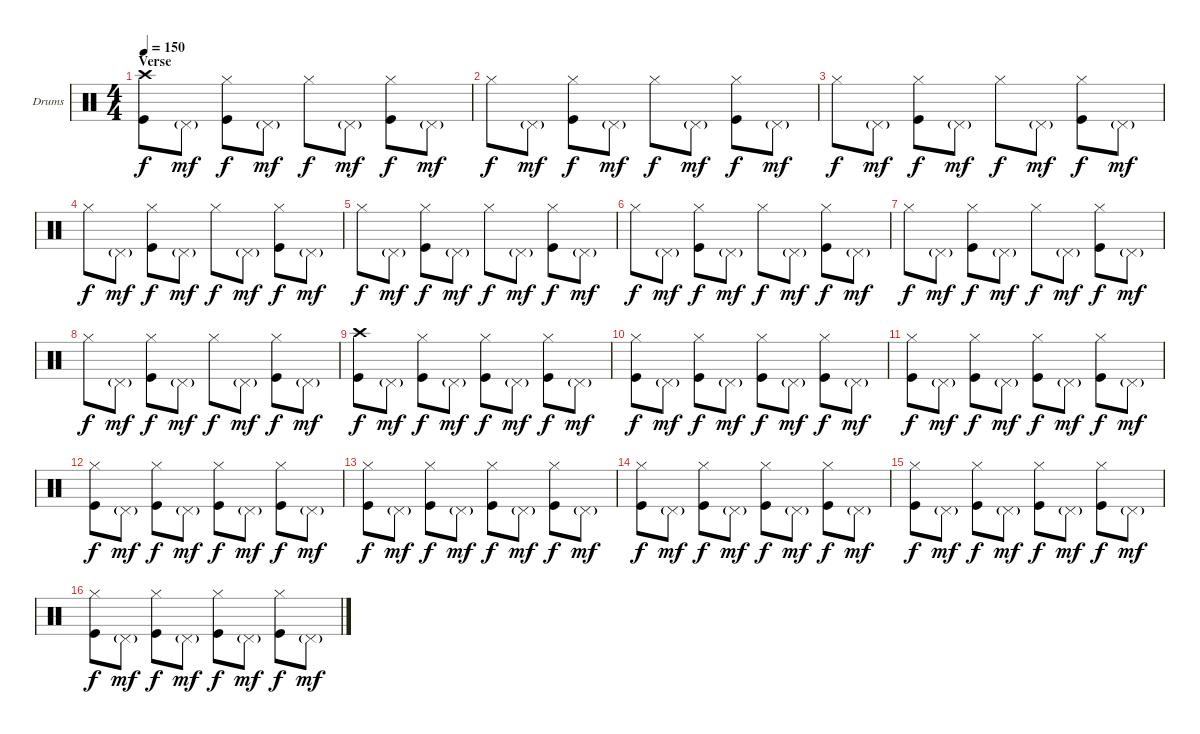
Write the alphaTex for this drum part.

\bracketExtendMode nobrackets
\firstSystemTrackNameOrientation horizontal
\otherSystemsTrackNameOrientation horizontal
\track ("Drumkit" "Drums") {instrument percussion}
\staff {score}
\articulation defaults
\ts (4 4)
\section ("" "Verse ")
\tempo 150
\clef neutral
\ks c
("Crash high (hit)" "Kick (hit)").8{dy f} "Pedal Hi-Hat (hit)"{g}.8{dy mf} ("Hi-Hat (closed)" "Kick (hit)").8{dy f} "Pedal Hi-Hat (hit)"{g}.8{dy mf} "Hi-Hat (closed)".8{dy f} "Pedal Hi-Hat (hit)"{g}.8{dy mf} ("Hi-Hat (closed)" "Kick (hit)").8{dy f} "Pedal Hi-Hat (hit)"{g}.8{dy mf} |
"Hi-Hat (closed)".8{dy f} "Pedal Hi-Hat (hit)"{g}.8{dy mf} ("Hi-Hat (closed)" "Kick (hit)").8{dy f} "Pedal Hi-Hat (hit)"{g}.8{dy mf} "Hi-Hat (closed)".8{dy f} "Pedal Hi-Hat (hit)"{g}.8{dy mf} ("Hi-Hat (closed)" "Kick (hit)").8{dy f} "Pedal Hi-Hat (hit)"{g}.8{dy mf} |
"Hi-Hat (closed)".8{dy f} "Pedal Hi-Hat (hit)"{g}.8{dy mf} ("Hi-Hat (closed)" "Kick (hit)").8{dy f} "Pedal Hi-Hat (hit)"{g}.8{dy mf} "Hi-Hat (closed)".8{dy f} "Pedal Hi-Hat (hit)"{g}.8{dy mf} ("Hi-Hat (closed)" "Kick (hit)").8{dy f} "Pedal Hi-Hat (hit)"{g}.8{dy mf} |
"Hi-Hat (closed)".8{dy f} "Pedal Hi-Hat (hit)"{g}.8{dy mf} ("Hi-Hat (closed)" "Kick (hit)").8{dy f} "Pedal Hi-Hat (hit)"{g}.8{dy mf} "Hi-Hat (closed)".8{dy f} "Pedal Hi-Hat (hit)"{g}.8{dy mf} ("Hi-Hat (closed)" "Kick (hit)").8{dy f} "Pedal Hi-Hat (hit)"{g}.8{dy mf} |
"Hi-Hat (closed)".8{dy f} "Pedal Hi-Hat (hit)"{g}.8{dy mf} ("Hi-Hat (closed)" "Kick (hit)").8{dy f} "Pedal Hi-Hat (hit)"{g}.8{dy mf} "Hi-Hat (closed)".8{dy f} "Pedal Hi-Hat (hit)"{g}.8{dy mf} ("Hi-Hat (closed)" "Kick (hit)").8{dy f} "Pedal Hi-Hat (hit)"{g}.8{dy mf} |
"Hi-Hat (closed)".8{dy f} "Pedal Hi-Hat (hit)"{g}.8{dy mf} ("Hi-Hat (closed)" "Kick (hit)").8{dy f} "Pedal Hi-Hat (hit)"{g}.8{dy mf} "Hi-Hat (closed)".8{dy f} "Pedal Hi-Hat (hit)"{g}.8{dy mf} ("Hi-Hat (closed)" "Kick (hit)").8{dy f} "Pedal Hi-Hat (hit)"{g}.8{dy mf} |
"Hi-Hat (closed)".8{dy f} "Pedal Hi-Hat (hit)"{g}.8{dy mf} ("Hi-Hat (closed)" "Kick (hit)").8{dy f} "Pedal Hi-Hat (hit)"{g}.8{dy mf} "Hi-Hat (closed)".8{dy f} "Pedal Hi-Hat (hit)"{g}.8{dy mf} ("Hi-Hat (closed)" "Kick (hit)").8{dy f} "Pedal Hi-Hat (hit)"{g}.8{dy mf} |
"Hi-Hat (closed)".8{dy f} "Pedal Hi-Hat (hit)"{g}.8{dy mf} ("Hi-Hat (closed)" "Kick (hit)").8{dy f} "Pedal Hi-Hat (hit)"{g}.8{dy mf} "Hi-Hat (closed)".8{dy f} "Pedal Hi-Hat (hit)"{g}.8{dy mf} ("Hi-Hat (closed)" "Kick (hit)").8{dy f} "Pedal Hi-Hat (hit)"{g}.8{dy mf} |
("Crash high (hit)" "Kick (hit)").8{dy f} "Pedal Hi-Hat (hit)"{g}.8{dy mf} ("Hi-Hat (closed)" "Kick (hit)").8{dy f} "Pedal Hi-Hat (hit)"{g}.8{dy mf} ("Hi-Hat (closed)" "Kick (hit)").8{dy f} "Pedal Hi-Hat (hit)"{g}.8{dy mf} ("Hi-Hat (closed)" "Kick (hit)").8{dy f} "Pedal Hi-Hat (hit)"{g}.8{dy mf} |
("Hi-Hat (closed)" "Kick (hit)").8{dy f} "Pedal Hi-Hat (hit)"{g}.8{dy mf} ("Hi-Hat (closed)" "Kick (hit)").8{dy f} "Pedal Hi-Hat (hit)"{g}.8{dy mf} ("Hi-Hat (closed)" "Kick (hit)").8{dy f} "Pedal Hi-Hat (hit)"{g}.8{dy mf} ("Hi-Hat (closed)" "Kick (hit)").8{dy f} "Pedal Hi-Hat (hit)"{g}.8{dy mf} |
("Hi-Hat (closed)" "Kick (hit)").8{dy f} "Pedal Hi-Hat (hit)"{g}.8{dy mf} ("Hi-Hat (closed)" "Kick (hit)").8{dy f} "Pedal Hi-Hat (hit)"{g}.8{dy mf} ("Hi-Hat (closed)" "Kick (hit)").8{dy f} "Pedal Hi-Hat (hit)"{g}.8{dy mf} ("Hi-Hat (closed)" "Kick (hit)").8{dy f} "Pedal Hi-Hat (hit)"{g}.8{dy mf} |
("Hi-Hat (closed)" "Kick (hit)").8{dy f} "Pedal Hi-Hat (hit)"{g}.8{dy mf} ("Hi-Hat (closed)" "Kick (hit)").8{dy f} "Pedal Hi-Hat (hit)"{g}.8{dy mf} ("Hi-Hat (closed)" "Kick (hit)").8{dy f} "Pedal Hi-Hat (hit)"{g}.8{dy mf} ("Hi-Hat (closed)" "Kick (hit)").8{dy f} "Pedal Hi-Hat (hit)"{g}.8{dy mf} |
("Hi-Hat (closed)" "Kick (hit)").8{dy f} "Pedal Hi-Hat (hit)"{g}.8{dy mf} ("Hi-Hat (closed)" "Kick (hit)").8{dy f} "Pedal Hi-Hat (hit)"{g}.8{dy mf} ("Hi-Hat (closed)" "Kick (hit)").8{dy f} "Pedal Hi-Hat (hit)"{g}.8{dy mf} ("Hi-Hat (closed)" "Kick (hit)").8{dy f} "Pedal Hi-Hat (hit)"{g}.8{dy mf} |
("Hi-Hat (closed)" "Kick (hit)").8{dy f} "Pedal Hi-Hat (hit)"{g}.8{dy mf} ("Hi-Hat (closed)" "Kick (hit)").8{dy f} "Pedal Hi-Hat (hit)"{g}.8{dy mf} ("Hi-Hat (closed)" "Kick (hit)").8{dy f} "Pedal Hi-Hat (hit)"{g}.8{dy mf} ("Hi-Hat (closed)" "Kick (hit)").8{dy f} "Pedal Hi-Hat (hit)"{g}.8{dy mf} |
("Hi-Hat (closed)" "Kick (hit)").8{dy f} "Pedal Hi-Hat (hit)"{g}.8{dy mf} ("Hi-Hat (closed)" "Kick (hit)").8{dy f} "Pedal Hi-Hat (hit)"{g}.8{dy mf} ("Hi-Hat (closed)" "Kick (hit)").8{dy f} "Pedal Hi-Hat (hit)"{g}.8{dy mf} ("Hi-Hat (closed)" "Kick (hit)").8{dy f} "Pedal Hi-Hat (hit)"{g}.8{dy mf} |
("Hi-Hat (closed)" "Kick (hit)").8{dy f} "Pedal Hi-Hat (hit)"{g}.8{dy mf} ("Hi-Hat (closed)" "Kick (hit)").8{dy f} "Pedal Hi-Hat (hit)"{g}.8{dy mf} ("Hi-Hat (closed)" "Kick (hit)").8{dy f} "Pedal Hi-Hat (hit)"{g}.8{dy mf} ("Hi-Hat (closed)" "Kick (hit)").8{dy f} "Pedal Hi-Hat (hit)"{g}.8{dy mf}
